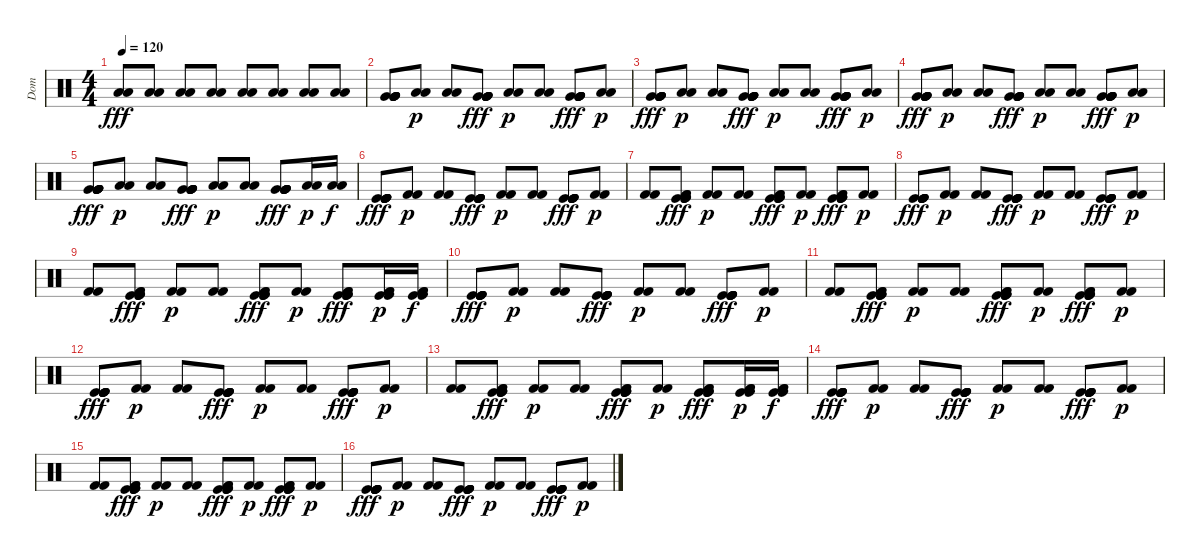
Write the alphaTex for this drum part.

\track ("Dom" "Dom") {instrument percussion}
\staff {score}
\articulation defaults
\ts (4 4)
\tempo 120
\clef neutral
\ks c
("Low Floor Tom (hit)" "Low Floor Tom (hit)").8{dy fff volume 0} ("Low Floor Tom (hit)" "Low Floor Tom (hit)").8{volume 16} ("Low Floor Tom (hit)" "Low Floor Tom (hit)").8 ("Low Floor Tom (hit)" "Low Floor Tom (hit)").8 ("Low Floor Tom (hit)" "Low Floor Tom (hit)").8 ("Low Floor Tom (hit)" "Low Floor Tom (hit)").8 ("Low Floor Tom (hit)" "Low Floor Tom (hit)").8 ("Low Floor Tom (hit)" "Low Floor Tom (hit)").8 |
("Very Low Tom (hit)" "Very Low Tom (hit)" "Very Low Tom (hit)" "Very Low Tom (hit)" "Very Low Tom (hit)" "Very Low Tom (hit)").8 ("Low Floor Tom (hit)" "Low Floor Tom (hit)").8{dy p} ("Low Floor Tom (hit)" "Low Floor Tom (hit)").8 ("Very Low Tom (hit)" "Very Low Tom (hit)" "Very Low Tom (hit)" "Very Low Tom (hit)" "Very Low Tom (hit)" "Very Low Tom (hit)").8{dy fff} ("Low Floor Tom (hit)" "Low Floor Tom (hit)").8{dy p} ("Low Floor Tom (hit)" "Low Floor Tom (hit)").8 ("Very Low Tom (hit)" "Very Low Tom (hit)" "Very Low Tom (hit)" "Very Low Tom (hit)" "Very Low Tom (hit)" "Very Low Tom (hit)").8{dy fff} ("Low Floor Tom (hit)" "Low Floor Tom (hit)").8{dy p} |
("Very Low Tom (hit)" "Very Low Tom (hit)" "Very Low Tom (hit)" "Very Low Tom (hit)" "Very Low Tom (hit)" "Very Low Tom (hit)").8{dy fff} ("Low Floor Tom (hit)" "Low Floor Tom (hit)").8{dy p} ("Low Floor Tom (hit)" "Low Floor Tom (hit)").8 ("Very Low Tom (hit)" "Very Low Tom (hit)" "Very Low Tom (hit)" "Very Low Tom (hit)" "Very Low Tom (hit)" "Very Low Tom (hit)").8{dy fff} ("Low Floor Tom (hit)" "Low Floor Tom (hit)").8{dy p} ("Low Floor Tom (hit)" "Low Floor Tom (hit)").8 ("Very Low Tom (hit)" "Very Low Tom (hit)" "Very Low Tom (hit)" "Very Low Tom (hit)" "Very Low Tom (hit)" "Very Low Tom (hit)").8{dy fff} ("Low Floor Tom (hit)" "Low Floor Tom (hit)").8{dy p} |
("Very Low Tom (hit)" "Very Low Tom (hit)" "Very Low Tom (hit)" "Very Low Tom (hit)" "Very Low Tom (hit)" "Very Low Tom (hit)").8{dy fff} ("Low Floor Tom (hit)" "Low Floor Tom (hit)").8{dy p} ("Low Floor Tom (hit)" "Low Floor Tom (hit)").8 ("Very Low Tom (hit)" "Very Low Tom (hit)" "Very Low Tom (hit)" "Very Low Tom (hit)" "Very Low Tom (hit)" "Very Low Tom (hit)").8{dy fff} ("Low Floor Tom (hit)" "Low Floor Tom (hit)").8{dy p} ("Low Floor Tom (hit)" "Low Floor Tom (hit)").8 ("Very Low Tom (hit)" "Very Low Tom (hit)" "Very Low Tom (hit)" "Very Low Tom (hit)" "Very Low Tom (hit)" "Very Low Tom (hit)").8{dy fff} ("Low Floor Tom (hit)" "Low Floor Tom (hit)").8{dy p} |
("Very Low Tom (hit)" "Very Low Tom (hit)" "Very Low Tom (hit)" "Very Low Tom (hit)" "Very Low Tom (hit)" "Very Low Tom (hit)").8{dy fff} ("Low Floor Tom (hit)" "Low Floor Tom (hit)").8{dy p} ("Low Floor Tom (hit)" "Low Floor Tom (hit)").8 ("Very Low Tom (hit)" "Very Low Tom (hit)" "Very Low Tom (hit)" "Very Low Tom (hit)" "Very Low Tom (hit)" "Very Low Tom (hit)").8{dy fff} ("Low Floor Tom (hit)" "Low Floor Tom (hit)").8{dy p} ("Low Floor Tom (hit)" "Low Floor Tom (hit)").8 ("Very Low Tom (hit)" "Very Low Tom (hit)" "Very Low Tom (hit)" "Very Low Tom (hit)" "Very Low Tom (hit)" "Very Low Tom (hit)").8{dy fff} ("Low Floor Tom (hit)" "Low Floor Tom (hit)").16{dy p} ("Low Floor Tom (hit)" "Low Floor Tom (hit)").16{dy f} |
("Kick (hit)" "Kick (hit)" "Kick (hit)" "Kick (hit)" "Kick (hit)" "Kick (hit)").8{dy fff} ("Kick (hit) 2" "Kick (hit) 2").8{dy p} ("Kick (hit) 2" "Kick (hit) 2").8 ("Kick (hit)" "Kick (hit)" "Kick (hit)" "Kick (hit)" "Kick (hit)" "Kick (hit)").8{dy fff} ("Kick (hit) 2" "Kick (hit) 2").8{dy p} ("Kick (hit) 2" "Kick (hit) 2").8 ("Kick (hit)" "Kick (hit)" "Kick (hit)" "Kick (hit)" "Kick (hit)" "Kick (hit)").8{dy fff} ("Kick (hit) 2" "Kick (hit) 2").8{dy p} |
("Kick (hit) 2" "Kick (hit) 2").8 ("Kick (hit)" "Kick (hit)" "Kick (hit) 2" "Kick (hit) 2" "Kick (hit)" "Kick (hit)").8{dy fff} ("Kick (hit) 2" "Kick (hit) 2").8{dy p} ("Kick (hit) 2" "Kick (hit) 2").8 ("Kick (hit)" "Kick (hit)" "Kick (hit) 2" "Kick (hit) 2" "Kick (hit)" "Kick (hit)").8{dy fff} ("Kick (hit) 2" "Kick (hit) 2").8{dy p} ("Kick (hit)" "Kick (hit)" "Kick (hit) 2" "Kick (hit) 2" "Kick (hit)" "Kick (hit)").8{dy fff} ("Kick (hit) 2" "Kick (hit) 2").8{dy p} |
("Kick (hit)" "Kick (hit)" "Kick (hit)" "Kick (hit)" "Kick (hit)" "Kick (hit)").8{dy fff} ("Kick (hit) 2" "Kick (hit) 2").8{dy p} ("Kick (hit) 2" "Kick (hit) 2").8 ("Kick (hit)" "Kick (hit)" "Kick (hit)" "Kick (hit)" "Kick (hit)" "Kick (hit)").8{dy fff} ("Kick (hit) 2" "Kick (hit) 2").8{dy p} ("Kick (hit) 2" "Kick (hit) 2").8 ("Kick (hit)" "Kick (hit)" "Kick (hit)" "Kick (hit)" "Kick (hit)" "Kick (hit)").8{dy fff} ("Kick (hit) 2" "Kick (hit) 2").8{dy p} |
("Kick (hit) 2" "Kick (hit) 2").8 ("Kick (hit)" "Kick (hit)" "Kick (hit) 2" "Kick (hit) 2" "Kick (hit)" "Kick (hit)").8{dy fff} ("Kick (hit) 2" "Kick (hit) 2").8{dy p} ("Kick (hit) 2" "Kick (hit) 2").8 ("Kick (hit)" "Kick (hit)" "Kick (hit) 2" "Kick (hit) 2" "Kick (hit)" "Kick (hit)").8{dy fff} ("Kick (hit) 2" "Kick (hit) 2").8{dy p} ("Kick (hit)" "Kick (hit)" "Kick (hit) 2" "Kick (hit) 2" "Kick (hit)" "Kick (hit)").8{dy fff} ("Kick (hit)" "Kick (hit) 2" "Kick (hit) 2" "Kick (hit)").16{dy p} ("Kick (hit)" "Kick (hit) 2" "Kick (hit) 2" "Kick (hit)").16{dy f} |
("Kick (hit)" "Kick (hit)" "Kick (hit)" "Kick (hit)" "Kick (hit)" "Kick (hit)").8{dy fff} ("Kick (hit) 2" "Kick (hit) 2").8{dy p} ("Kick (hit) 2" "Kick (hit) 2").8 ("Kick (hit)" "Kick (hit)" "Kick (hit)" "Kick (hit)" "Kick (hit)" "Kick (hit)").8{dy fff} ("Kick (hit) 2" "Kick (hit) 2").8{dy p} ("Kick (hit) 2" "Kick (hit) 2").8 ("Kick (hit)" "Kick (hit)" "Kick (hit)" "Kick (hit)" "Kick (hit)" "Kick (hit)").8{dy fff} ("Kick (hit) 2" "Kick (hit) 2").8{dy p} |
("Kick (hit) 2" "Kick (hit) 2").8 ("Kick (hit)" "Kick (hit)" "Kick (hit) 2" "Kick (hit) 2" "Kick (hit)" "Kick (hit)").8{dy fff} ("Kick (hit) 2" "Kick (hit) 2").8{dy p} ("Kick (hit) 2" "Kick (hit) 2").8 ("Kick (hit)" "Kick (hit)" "Kick (hit) 2" "Kick (hit) 2" "Kick (hit)" "Kick (hit)").8{dy fff} ("Kick (hit) 2" "Kick (hit) 2").8{dy p} ("Kick (hit)" "Kick (hit)" "Kick (hit) 2" "Kick (hit) 2" "Kick (hit)" "Kick (hit)").8{dy fff} ("Kick (hit) 2" "Kick (hit) 2").8{dy p} |
("Kick (hit)" "Kick (hit)" "Kick (hit)" "Kick (hit)" "Kick (hit)" "Kick (hit)").8{dy fff} ("Kick (hit) 2" "Kick (hit) 2").8{dy p} ("Kick (hit) 2" "Kick (hit) 2").8 ("Kick (hit)" "Kick (hit)" "Kick (hit)" "Kick (hit)" "Kick (hit)" "Kick (hit)").8{dy fff} ("Kick (hit) 2" "Kick (hit) 2").8{dy p} ("Kick (hit) 2" "Kick (hit) 2").8 ("Kick (hit)" "Kick (hit)" "Kick (hit)" "Kick (hit)" "Kick (hit)" "Kick (hit)").8{dy fff} ("Kick (hit) 2" "Kick (hit) 2").8{dy p} |
("Kick (hit) 2" "Kick (hit) 2").8 ("Kick (hit)" "Kick (hit)" "Kick (hit) 2" "Kick (hit) 2" "Kick (hit)" "Kick (hit)").8{dy fff} ("Kick (hit) 2" "Kick (hit) 2").8{dy p} ("Kick (hit) 2" "Kick (hit) 2").8 ("Kick (hit)" "Kick (hit)" "Kick (hit) 2" "Kick (hit) 2" "Kick (hit)" "Kick (hit)").8{dy fff} ("Kick (hit) 2" "Kick (hit) 2").8{dy p} ("Kick (hit)" "Kick (hit)" "Kick (hit) 2" "Kick (hit) 2" "Kick (hit)" "Kick (hit)").8{dy fff} ("Kick (hit)" "Kick (hit) 2" "Kick (hit) 2" "Kick (hit)").16{dy p} ("Kick (hit)" "Kick (hit) 2" "Kick (hit) 2" "Kick (hit)").16{dy f} |
("Kick (hit)" "Kick (hit)" "Kick (hit)" "Kick (hit)" "Kick (hit)" "Kick (hit)").8{dy fff} ("Kick (hit) 2" "Kick (hit) 2").8{dy p} ("Kick (hit) 2" "Kick (hit) 2").8 ("Kick (hit)" "Kick (hit)" "Kick (hit)" "Kick (hit)" "Kick (hit)" "Kick (hit)").8{dy fff} ("Kick (hit) 2" "Kick (hit) 2").8{dy p} ("Kick (hit) 2" "Kick (hit) 2").8 ("Kick (hit)" "Kick (hit)" "Kick (hit)" "Kick (hit)" "Kick (hit)" "Kick (hit)").8{dy fff} ("Kick (hit) 2" "Kick (hit) 2").8{dy p} |
("Kick (hit) 2" "Kick (hit) 2").8 ("Kick (hit)" "Kick (hit)" "Kick (hit) 2" "Kick (hit) 2" "Kick (hit)" "Kick (hit)").8{dy fff} ("Kick (hit) 2" "Kick (hit) 2").8{dy p} ("Kick (hit) 2" "Kick (hit) 2").8 ("Kick (hit)" "Kick (hit)" "Kick (hit) 2" "Kick (hit) 2" "Kick (hit)" "Kick (hit)").8{dy fff} ("Kick (hit) 2" "Kick (hit) 2").8{dy p} ("Kick (hit)" "Kick (hit)" "Kick (hit) 2" "Kick (hit) 2" "Kick (hit)" "Kick (hit)").8{dy fff} ("Kick (hit) 2" "Kick (hit) 2").8{dy p} |
("Kick (hit)" "Kick (hit)" "Kick (hit)" "Kick (hit)" "Kick (hit)" "Kick (hit)").8{dy fff} ("Kick (hit) 2" "Kick (hit) 2").8{dy p} ("Kick (hit) 2" "Kick (hit) 2").8 ("Kick (hit)" "Kick (hit)" "Kick (hit)" "Kick (hit)" "Kick (hit)" "Kick (hit)").8{dy fff} ("Kick (hit) 2" "Kick (hit) 2").8{dy p} ("Kick (hit) 2" "Kick (hit) 2").8 ("Kick (hit)" "Kick (hit)" "Kick (hit)" "Kick (hit)" "Kick (hit)" "Kick (hit)").8{dy fff} ("Kick (hit) 2" "Kick (hit) 2").8{dy p}
